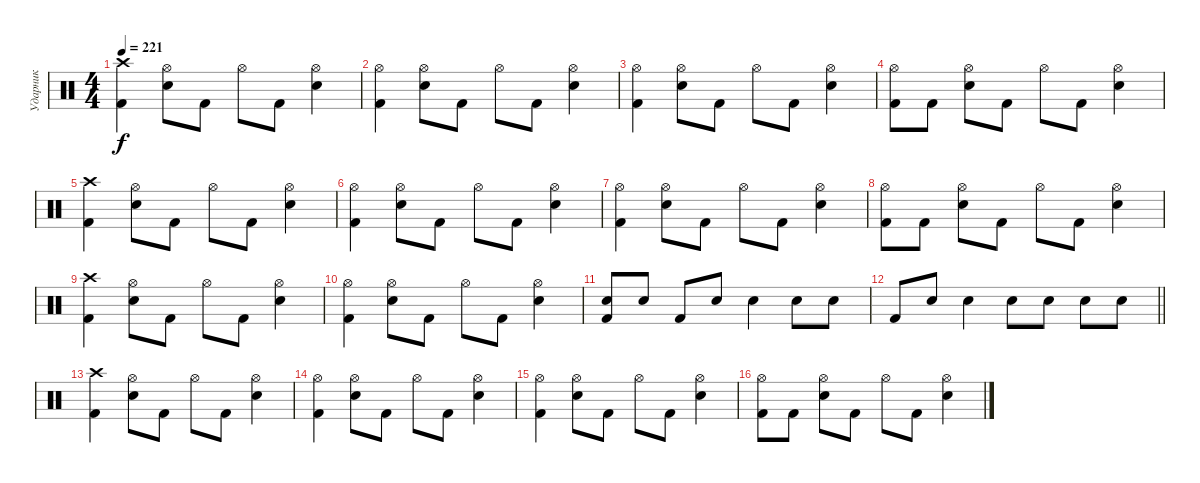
\track ("Ударник" "Ударник") {instrument percussion}
\staff {score}
\articulation defaults
\ts (4 4)
\tempo 221
\clef neutral
\ks c
("Kick (hit) 2" "Crash high (hit)").4{dy f} ("Snare (hit) 2" "Hi-Hat (open)").8 "Kick (hit) 2".8 "Hi-Hat (open)".8 "Kick (hit) 2".8 ("Snare (hit) 2" "Hi-Hat (open)").4 |
("Kick (hit) 2" "Hi-Hat (open)").4 ("Snare (hit) 2" "Hi-Hat (open)").8 "Kick (hit) 2".8 "Hi-Hat (open)".8 "Kick (hit) 2".8 ("Snare (hit) 2" "Hi-Hat (open)").4 |
("Kick (hit) 2" "Hi-Hat (open)").4 ("Snare (hit) 2" "Hi-Hat (open)").8 "Kick (hit) 2".8 "Hi-Hat (open)".8 "Kick (hit) 2".8 ("Snare (hit) 2" "Hi-Hat (open)").4 |
("Kick (hit) 2" "Hi-Hat (open)").8 "Kick (hit) 2".8 ("Snare (hit) 2" "Hi-Hat (open)").8 "Kick (hit) 2".8 "Hi-Hat (open)".8 "Kick (hit) 2".8 ("Snare (hit) 2" "Hi-Hat (open)").4 |
("Kick (hit) 2" "Crash high (hit)").4 ("Snare (hit) 2" "Hi-Hat (open)").8 "Kick (hit) 2".8 "Hi-Hat (open)".8 "Kick (hit) 2".8 ("Snare (hit) 2" "Hi-Hat (open)").4 |
("Kick (hit) 2" "Hi-Hat (open)").4 ("Snare (hit) 2" "Hi-Hat (open)").8 "Kick (hit) 2".8 "Hi-Hat (open)".8 "Kick (hit) 2".8 ("Snare (hit) 2" "Hi-Hat (open)").4 |
("Kick (hit) 2" "Hi-Hat (open)").4 ("Snare (hit) 2" "Hi-Hat (open)").8 "Kick (hit) 2".8 "Hi-Hat (open)".8 "Kick (hit) 2".8 ("Snare (hit) 2" "Hi-Hat (open)").4 |
("Kick (hit) 2" "Hi-Hat (open)").8 "Kick (hit) 2".8 ("Snare (hit) 2" "Hi-Hat (open)").8 "Kick (hit) 2".8 "Hi-Hat (open)".8 "Kick (hit) 2".8 ("Snare (hit) 2" "Hi-Hat (open)").4 |
("Kick (hit) 2" "Crash high (hit)").4 ("Snare (hit) 2" "Hi-Hat (open)").8 "Kick (hit) 2".8 "Hi-Hat (open)".8 "Kick (hit) 2".8 ("Snare (hit) 2" "Hi-Hat (open)").4 |
("Kick (hit) 2" "Hi-Hat (open)").4 ("Snare (hit) 2" "Hi-Hat (open)").8 "Kick (hit) 2".8 "Hi-Hat (open)".8 "Kick (hit) 2".8 ("Snare (hit) 2" "Hi-Hat (open)").4 |
("Kick (hit) 2" "Snare (hit) 2").8 "Snare (hit) 2".8 "Kick (hit) 2".8 "Snare (hit) 2".8 "Snare (hit) 2".4 "Snare (hit) 2".8 "Snare (hit) 2".8 |
\barLineRight lightlight "Kick (hit) 2".8 "Snare (hit) 2".8 "Snare (hit) 2".4 "Snare (hit) 2".8 "Snare (hit) 2".8 "Snare (hit) 2".8 "Snare (hit) 2".8
|
("Kick (hit) 2" "Crash high (hit)").4 ("Snare (hit) 2" "Hi-Hat (open)").8 "Kick (hit) 2".8 "Hi-Hat (open)".8 "Kick (hit) 2".8 ("Snare (hit) 2" "Hi-Hat (open)").4 |
("Kick (hit) 2" "Hi-Hat (open)").4 ("Snare (hit) 2" "Hi-Hat (open)").8 "Kick (hit) 2".8 "Hi-Hat (open)".8 "Kick (hit) 2".8 ("Snare (hit) 2" "Hi-Hat (open)").4 |
("Kick (hit) 2" "Hi-Hat (open)").4 ("Snare (hit) 2" "Hi-Hat (open)").8 "Kick (hit) 2".8 "Hi-Hat (open)".8 "Kick (hit) 2".8 ("Snare (hit) 2" "Hi-Hat (open)").4 |
("Kick (hit) 2" "Hi-Hat (open)").8 "Kick (hit) 2".8 ("Snare (hit) 2" "Hi-Hat (open)").8 "Kick (hit) 2".8 "Hi-Hat (open)".8 "Kick (hit) 2".8 ("Snare (hit) 2" "Hi-Hat (open)").4
